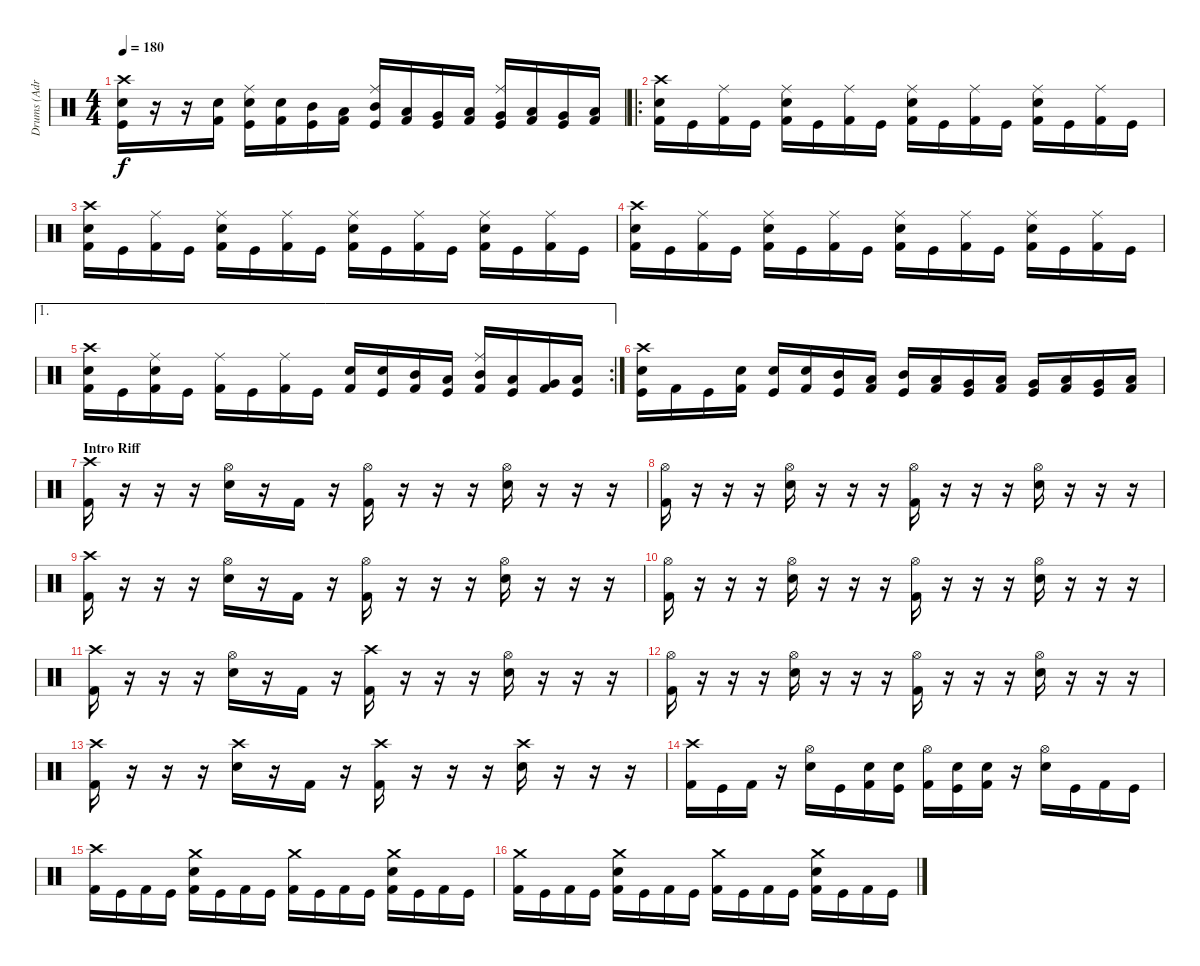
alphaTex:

\track ("Drums (Adrian)" "Drums (Adr") {instrument percussion}
\staff {score}
\articulation defaults
\ts (4 4)
\tempo 180
\clef neutral
\ks c
("Crash high (hit)" "Electric Snare (hit)" "Kick (hit)").16{dy f} r.16 r.16 ("Electric Snare (hit)" "Kick (hit) 2").16 ("Ride (middle)" "Electric Snare (hit)" "Kick (hit)").16 ("Electric Snare (hit)" "Kick (hit) 2").16 ("Mid Tom (hit)" "Kick (hit)").16 ("Low Tom (hit)" "Kick (hit) 2").16 ("Ride (middle)" "Mid Tom (hit)" "Kick (hit)").16 ("Low Tom (hit)" "Kick (hit) 2").16 ("Very Low Tom (hit)" "Kick (hit)").16 ("Low Tom (hit)" "Kick (hit) 2").16 ("Ride (middle)" "Very Low Tom (hit)" "Kick (hit)").16 ("Low Floor Tom (hit)" "Kick (hit) 2").16 ("Very Low Tom (hit)" "Kick (hit)").16 ("Low Floor Tom (hit)" "Kick (hit) 2").16 |
\ro
("Crash high (hit)" "Electric Snare (hit)" "Kick (hit) 2").16 "Kick (hit)".16 ("Ride (middle)" "Kick (hit) 2").16 "Kick (hit)".16 ("Ride (middle)" "Electric Snare (hit)" "Kick (hit) 2").16 "Kick (hit)".16 ("Ride (middle)" "Kick (hit) 2").16 "Kick (hit)".16 ("Ride (middle)" "Electric Snare (hit)" "Kick (hit) 2").16 "Kick (hit)".16 ("Ride (middle)" "Kick (hit) 2").16 "Kick (hit)".16 ("Ride (middle)" "Electric Snare (hit)" "Kick (hit) 2").16 "Kick (hit)".16 ("Ride (middle)" "Kick (hit) 2").16 "Kick (hit)".16 |
("Crash high (hit)" "Electric Snare (hit)" "Kick (hit) 2").16 "Kick (hit)".16 ("Ride (middle)" "Kick (hit) 2").16 "Kick (hit)".16 ("Ride (middle)" "Electric Snare (hit)" "Kick (hit) 2").16 "Kick (hit)".16 ("Ride (middle)" "Kick (hit) 2").16 "Kick (hit)".16 ("Ride (middle)" "Electric Snare (hit)" "Kick (hit) 2").16 "Kick (hit)".16 ("Ride (middle)" "Kick (hit) 2").16 "Kick (hit)".16 ("Ride (middle)" "Electric Snare (hit)" "Kick (hit) 2").16 "Kick (hit)".16 ("Ride (middle)" "Kick (hit) 2").16 "Kick (hit)".16 |
("Crash high (hit)" "Electric Snare (hit)" "Kick (hit) 2").16 "Kick (hit)".16 ("Ride (middle)" "Kick (hit) 2").16 "Kick (hit)".16 ("Ride (middle)" "Electric Snare (hit)" "Kick (hit) 2").16 "Kick (hit)".16 ("Ride (middle)" "Kick (hit) 2").16 "Kick (hit)".16 ("Ride (middle)" "Electric Snare (hit)" "Kick (hit) 2").16 "Kick (hit)".16 ("Ride (middle)" "Kick (hit) 2").16 "Kick (hit)".16 ("Ride (middle)" "Electric Snare (hit)" "Kick (hit) 2").16 "Kick (hit)".16 ("Ride (middle)" "Kick (hit) 2").16 "Kick (hit)".16 |
\ae 1
\rc 2
("Crash high (hit)" "Electric Snare (hit)" "Kick (hit) 2").16 "Kick (hit)".16 ("Ride (middle)" "Electric Snare (hit)" "Kick (hit) 2").16 "Kick (hit)".16 ("Ride (middle)" "Kick (hit) 2").16 "Kick (hit)".16 ("Ride (middle)" "Kick (hit) 2").16 "Kick (hit)".16 ("Electric Snare (hit)" "Kick (hit) 2").16 ("Electric Snare (hit)" "Kick (hit)").16 ("Mid Tom (hit)" "Kick (hit) 2").16 ("Low Tom (hit)" "Kick (hit)").16 ("Ride (middle)" "Mid Tom (hit)" "Kick (hit) 2").16 ("Low Tom (hit)" "Kick (hit)").16 ("Very Low Tom (hit)" "Kick (hit) 2").16 ("Low Tom (hit)" "Kick (hit)").16 |
("Crash high (hit)" "Electric Snare (hit)" "Kick (hit)").16 "Kick (hit) 2".16 "Kick (hit)".16 ("Electric Snare (hit)" "Kick (hit) 2").16 ("Electric Snare (hit)" "Kick (hit)").16 ("Electric Snare (hit)" "Kick (hit) 2").16 ("Mid Tom (hit)" "Kick (hit)").16 ("Low Tom (hit)" "Kick (hit) 2").16 ("Mid Tom (hit)" "Kick (hit)").16 ("Low Tom (hit)" "Kick (hit) 2").16 ("Very Low Tom (hit)" "Kick (hit)").16 ("Low Tom (hit)" "Kick (hit) 2").16 ("Very Low Tom (hit)" "Kick (hit)").16 ("Low Floor Tom (hit)" "Kick (hit) 2").16 ("Very Low Tom (hit)" "Kick (hit)").16 ("Low Floor Tom (hit)" "Kick (hit) 2").16 |
\section ("" "Intro Riff")
("Crash high (hit)" "Kick (hit) 2").16 r.16 r.16 r.16 ("Hi-Hat (open)" "Electric Snare (hit)").16 r.16 "Kick (hit) 2".16 r.16 ("Hi-Hat (open)" "Kick (hit) 2").16 r.16 r.16 r.16 ("Hi-Hat (open)" "Electric Snare (hit)").16 r.16 r.16 r.16 |
("Hi-Hat (open)" "Kick (hit) 2").16 r.16 r.16 r.16 ("Hi-Hat (open)" "Electric Snare (hit)").16 r.16 r.16 r.16 ("Hi-Hat (open)" "Kick (hit) 2").16 r.16 r.16 r.16 ("Hi-Hat (open)" "Electric Snare (hit)").16 r.16 r.16 r.16 |
("Crash high (hit)" "Kick (hit) 2").16 r.16 r.16 r.16 ("Hi-Hat (open)" "Electric Snare (hit)").16 r.16 "Kick (hit) 2".16 r.16 ("Hi-Hat (open)" "Kick (hit) 2").16 r.16 r.16 r.16 ("Hi-Hat (open)" "Electric Snare (hit)").16 r.16 r.16 r.16 |
("Hi-Hat (open)" "Kick (hit) 2").16 r.16 r.16 r.16 ("Hi-Hat (open)" "Electric Snare (hit)").16 r.16 r.16 r.16 ("Hi-Hat (open)" "Kick (hit) 2").16 r.16 r.16 r.16 ("Hi-Hat (open)" "Electric Snare (hit)").16 r.16 r.16 r.16 |
("Crash high (hit)" "Kick (hit) 2").16 r.16 r.16 r.16 ("Hi-Hat (open)" "Electric Snare (hit)").16 r.16 "Kick (hit) 2".16 r.16 ("Crash high (hit)" "Kick (hit) 2").16 r.16 r.16 r.16 ("Hi-Hat (open)" "Electric Snare (hit)").16 r.16 r.16 r.16 |
("Hi-Hat (open)" "Kick (hit) 2").16 r.16 r.16 r.16 ("Hi-Hat (open)" "Electric Snare (hit)").16 r.16 r.16 r.16 ("Hi-Hat (open)" "Kick (hit) 2").16 r.16 r.16 r.16 ("Hi-Hat (open)" "Electric Snare (hit)").16 r.16 r.16 r.16 |
("Crash high (hit)" "Kick (hit) 2").16 r.16 r.16 r.16 ("Crash high (hit)" "Electric Snare (hit)").16 r.16 "Kick (hit) 2".16 r.16 ("Crash high (hit)" "Kick (hit) 2").16 r.16 r.16 r.16 ("Crash high (hit)" "Electric Snare (hit)").16 r.16 r.16 r.16 |
("Crash high (hit)" "Kick (hit) 2").16 "Kick (hit)".16 "Kick (hit) 2".16 r.16 ("Hi-Hat (open)" "Electric Snare (hit)").16 "Kick (hit)".16 ("Electric Snare (hit)" "Kick (hit) 2").16 ("Electric Snare (hit)" "Kick (hit)").16 ("Hi-Hat (open)" "Kick (hit) 2").16 ("Electric Snare (hit)" "Kick (hit)").16 ("Electric Snare (hit)" "Kick (hit) 2").16 r.16 ("Hi-Hat (open)" "Electric Snare (hit)").16 "Kick (hit)".16 "Kick (hit) 2".16 "Kick (hit)".16 |
("Crash high (hit)" "Kick (hit) 2").16 "Kick (hit)".16 "Kick (hit) 2".16 "Kick (hit)".16 ("Crash medium (hit)" "Electric Snare (hit)" "Kick (hit) 2").16 "Kick (hit)".16 "Kick (hit) 2".16 "Kick (hit)".16 ("Crash medium (hit)" "Kick (hit) 2").16 "Kick (hit)".16 "Kick (hit) 2".16 "Kick (hit)".16 ("Crash medium (hit)" "Electric Snare (hit)" "Kick (hit) 2").16 "Kick (hit)".16 "Kick (hit) 2".16 "Kick (hit)".16 |
("Crash medium (hit)" "Kick (hit) 2").16 "Kick (hit)".16 "Kick (hit) 2".16 "Kick (hit)".16 ("Crash medium (hit)" "Electric Snare (hit)" "Kick (hit) 2").16 "Kick (hit)".16 "Kick (hit) 2".16 "Kick (hit)".16 ("Crash medium (hit)" "Kick (hit) 2").16 "Kick (hit)".16 "Kick (hit) 2".16 "Kick (hit)".16 ("Crash medium (hit)" "Electric Snare (hit)" "Kick (hit) 2").16 "Kick (hit)".16 "Kick (hit) 2".16 "Kick (hit)".16
